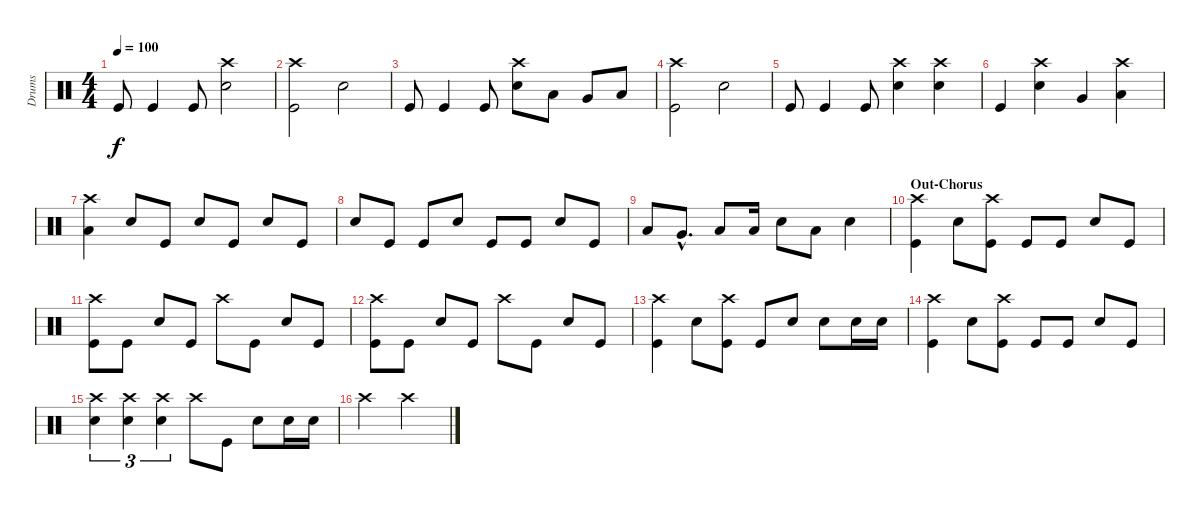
\track ("Drums" "Drums") {instrument percussion}
\staff {score}
\articulation defaults
\ts (4 4)
\tempo 100
\clef neutral
\ks c "Kick (hit)".8{dy f} "Kick (hit)".4 "Kick (hit)".8
("Crash high (hit)" "Snare (hit) 2").2 |
("Crash high (hit)" "Kick (hit)").2 "Snare (hit) 2".2 |
"Kick (hit)".8 "Kick (hit)".4 "Kick (hit)".8 ("Crash high (hit)" "Snare (hit) 2").8 "Low Tom (hit)".8 "Very Low Tom (hit)".8 "Low Floor Tom (hit)".8 |
("Crash high (hit)" "Kick (hit)").2 "Snare (hit) 2".2 |
"Kick (hit)".8 "Kick (hit)".4 "Kick (hit)".8 ("Crash high (hit)" "Snare (hit) 2").4 ("Crash high (hit)" "Snare (hit) 2").4 |
"Kick (hit)".4 ("Crash high (hit)" "Snare (hit) 2").4 "Very Low Tom (hit)".4 ("Crash high (hit)" "Low Floor Tom (hit)").4 |
("Crash high (hit)" "Low Floor Tom (hit)").4 "Snare (hit) 2".8 "Kick (hit)".8 "Snare (hit) 2".8 "Kick (hit)".8 "Snare (hit) 2".8 "Kick (hit)".8 |
"Snare (hit) 2".8 "Kick (hit)".8 "Kick (hit)".8 "Snare (hit) 2".8 "Kick (hit)".8 "Kick (hit)".8 "Snare (hit) 2".8 "Kick (hit)".8 |
"Low Tom (hit)".8 "Very Low Tom (hit)"{hac}.8{d} "Low Floor Tom (hit)".8 "Low Floor Tom (hit)".16 "Snare (hit) 2".8 "Low Floor Tom (hit)".8 "Snare (hit) 2".4 |
\section ("" "Out-Chorus")
("Crash high (hit)" "Kick (hit)").4 "Snare (hit) 2".8 ("Crash high (hit)" "Kick (hit)").8 "Kick (hit)".8 "Kick (hit)".8 "Snare (hit) 2".8 "Kick (hit)".8 |
("Crash high (hit)" "Kick (hit)").8 "Kick (hit)".8 "Snare (hit) 2".8 "Kick (hit)".8 "Crash high (hit)".8 "Kick (hit)".8 "Snare (hit) 2".8 "Kick (hit)".8 |
("Crash high (hit)" "Kick (hit)").8 "Kick (hit)".8 "Snare (hit) 2".8 "Kick (hit)".8 "Crash high (hit)".8 "Kick (hit)".8 "Snare (hit) 2".8 "Kick (hit)".8 |
("Crash high (hit)" "Kick (hit)").4 "Snare (hit) 2".8 ("Crash high (hit)" "Kick (hit)").8 "Kick (hit)".8 "Snare (hit) 2".8 "Snare (hit) 2".8 "Snare (hit) 2".16 "Snare (hit) 2".16 |
("Crash high (hit)" "Kick (hit)").4 "Snare (hit) 2".8 ("Crash high (hit)" "Kick (hit)").8 "Kick (hit)".8 "Kick (hit)".8 "Snare (hit) 2".8 "Kick (hit)".8 |
("Crash high (hit)" "Snare (hit) 2").4{tu (3 2)} ("Crash high (hit)" "Snare (hit) 2").4{tu (3 2)} ("Crash high (hit)" "Snare (hit) 2").4{tu (3 2)} "Crash high (hit)".8 "Kick (hit)".8 "Snare (hit) 2".8 "Snare (hit) 2".16 "Snare (hit) 2".16 |
"Crash high (hit)".2 "Crash high (hit)".2
